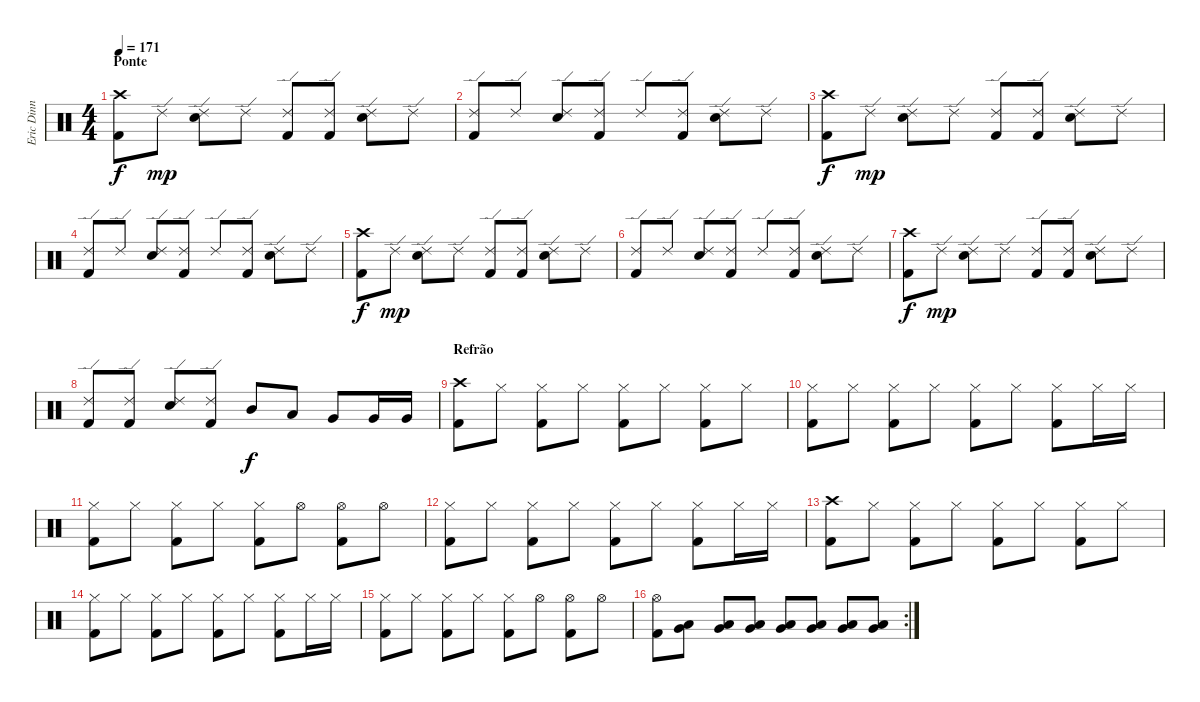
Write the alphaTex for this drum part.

\track ("Eric Dinn" "Eric Dinn") {instrument percussion}
\staff {score}
\articulation defaults
\ts (4 4)
\section ("" "Ponte")
\tempo 171
\clef neutral
\ks c
("Crash high (hit)" "Kick (hit) 2").8{dy f} "Ride (edge) 2".8{dy mp} ("Ride (edge) 2" "Snare (hit) 2").8 "Ride (edge) 2".8 ("Ride (edge) 2" "Kick (hit) 2").8 ("Ride (edge) 2" "Kick (hit) 2").8 ("Ride (edge) 2" "Snare (hit) 2").8 "Ride (edge) 2".8 |
("Ride (edge) 2" "Kick (hit) 2").8 "Ride (edge) 2".8 ("Ride (edge) 2" "Snare (hit) 2").8 ("Ride (edge) 2" "Kick (hit) 2").8 "Ride (edge) 2".8 ("Ride (edge) 2" "Kick (hit) 2").8 ("Ride (edge) 2" "Snare (hit) 2").8 "Ride (edge) 2".8 |
("Crash high (hit)" "Kick (hit) 2").8{dy f} "Ride (edge) 2".8{dy mp} ("Ride (edge) 2" "Snare (hit) 2").8 "Ride (edge) 2".8 ("Ride (edge) 2" "Kick (hit) 2").8 ("Ride (edge) 2" "Kick (hit) 2").8 ("Ride (edge) 2" "Snare (hit) 2").8 "Ride (edge) 2".8 |
("Ride (edge) 2" "Kick (hit) 2").8 "Ride (edge) 2".8 ("Ride (edge) 2" "Snare (hit) 2").8 ("Ride (edge) 2" "Kick (hit) 2").8 "Ride (edge) 2".8 ("Ride (edge) 2" "Kick (hit) 2").8 ("Ride (edge) 2" "Snare (hit) 2").8 "Ride (edge) 2".8 |
("Crash high (hit)" "Kick (hit) 2").8{dy f} "Ride (edge) 2".8{dy mp} ("Ride (edge) 2" "Snare (hit) 2").8 "Ride (edge) 2".8 ("Ride (edge) 2" "Kick (hit) 2").8 ("Ride (edge) 2" "Kick (hit) 2").8 ("Ride (edge) 2" "Snare (hit) 2").8 "Ride (edge) 2".8 |
("Ride (edge) 2" "Kick (hit) 2").8 "Ride (edge) 2".8 ("Ride (edge) 2" "Snare (hit) 2").8 ("Ride (edge) 2" "Kick (hit) 2").8 "Ride (edge) 2".8 ("Ride (edge) 2" "Kick (hit) 2").8 ("Ride (edge) 2" "Snare (hit) 2").8 "Ride (edge) 2".8 |
("Crash high (hit)" "Kick (hit) 2").8{dy f} "Ride (edge) 2".8{dy mp} ("Ride (edge) 2" "Snare (hit) 2").8 "Ride (edge) 2".8 ("Ride (edge) 2" "Kick (hit) 2").8 ("Ride (edge) 2" "Kick (hit) 2").8 ("Ride (edge) 2" "Snare (hit) 2").8 "Ride (edge) 2".8 |
("Ride (edge) 2" "Kick (hit) 2").8 ("Ride (edge) 2" "Kick (hit) 2").8 ("Ride (edge) 2" "Snare (hit) 2").8 ("Ride (edge) 2" "Kick (hit) 2").8 "Mid Tom (hit)".8{dy f} "Low Tom (hit)".8 "Very Low Tom (hit)".8 "Very Low Tom (hit)".16 "Very Low Tom (hit)".16 |
\section ("" "Refrão")
("Crash high (hit)" "Kick (hit) 2").8 "Hi-Hat (closed)".8 ("Hi-Hat (closed)" "Kick (hit) 2").8 "Hi-Hat (closed)".8 ("Hi-Hat (closed)" "Kick (hit) 2").8 "Hi-Hat (closed)".8 ("Hi-Hat (closed)" "Kick (hit) 2").8 "Hi-Hat (closed)".8 |
("Hi-Hat (closed)" "Kick (hit) 2").8 "Hi-Hat (closed)".8 ("Hi-Hat (closed)" "Kick (hit) 2").8 "Hi-Hat (closed)".8 ("Hi-Hat (closed)" "Kick (hit) 2").8 "Hi-Hat (closed)".8 ("Hi-Hat (closed)" "Kick (hit) 2").8 "Hi-Hat (closed)".16 "Hi-Hat (closed)".16 |
("Hi-Hat (closed)" "Kick (hit) 2").8 "Hi-Hat (closed)".8 ("Hi-Hat (closed)" "Kick (hit) 2").8 "Hi-Hat (closed)".8 ("Hi-Hat (closed)" "Kick (hit) 2").8 "Hi-Hat (open)".8 ("Hi-Hat (open)" "Kick (hit) 2").8 "Hi-Hat (open)".8 |
("Hi-Hat (closed)" "Kick (hit) 2").8 "Hi-Hat (closed)".8 ("Hi-Hat (closed)" "Kick (hit) 2").8 "Hi-Hat (closed)".8 ("Hi-Hat (closed)" "Kick (hit) 2").8 "Hi-Hat (closed)".8 ("Hi-Hat (closed)" "Kick (hit) 2").8 "Hi-Hat (closed)".16 "Hi-Hat (closed)".16 |
("Crash high (hit)" "Kick (hit) 2").8 "Hi-Hat (closed)".8 ("Hi-Hat (closed)" "Kick (hit) 2").8 "Hi-Hat (closed)".8 ("Hi-Hat (closed)" "Kick (hit) 2").8 "Hi-Hat (closed)".8 ("Hi-Hat (closed)" "Kick (hit) 2").8 "Hi-Hat (closed)".8 |
("Hi-Hat (closed)" "Kick (hit) 2").8 "Hi-Hat (closed)".8 ("Hi-Hat (closed)" "Kick (hit) 2").8 "Hi-Hat (closed)".8 ("Hi-Hat (closed)" "Kick (hit) 2").8 "Hi-Hat (closed)".8 ("Hi-Hat (closed)" "Kick (hit) 2").8 "Hi-Hat (closed)".16 "Hi-Hat (closed)".16 |
("Hi-Hat (closed)" "Kick (hit) 2").8 "Hi-Hat (closed)".8 ("Hi-Hat (closed)" "Kick (hit) 2").8 "Hi-Hat (closed)".8 ("Hi-Hat (closed)" "Kick (hit) 2").8 "Hi-Hat (open)".8 ("Hi-Hat (open)" "Kick (hit) 2").8 "Hi-Hat (open)".8 |
\rc 2
("Hi-Hat (open)" "Kick (hit) 2").8 ("Very Low Tom (hit)" "Low Tom (hit)").8 ("Very Low Tom (hit)" "Low Tom (hit)").8 ("Very Low Tom (hit)" "Low Tom (hit)").8 ("Very Low Tom (hit)" "Low Tom (hit)").8 ("Very Low Tom (hit)" "Low Tom (hit)").8 ("Very Low Tom (hit)" "Low Tom (hit)").8 ("Very Low Tom (hit)" "Low Tom (hit)").8
